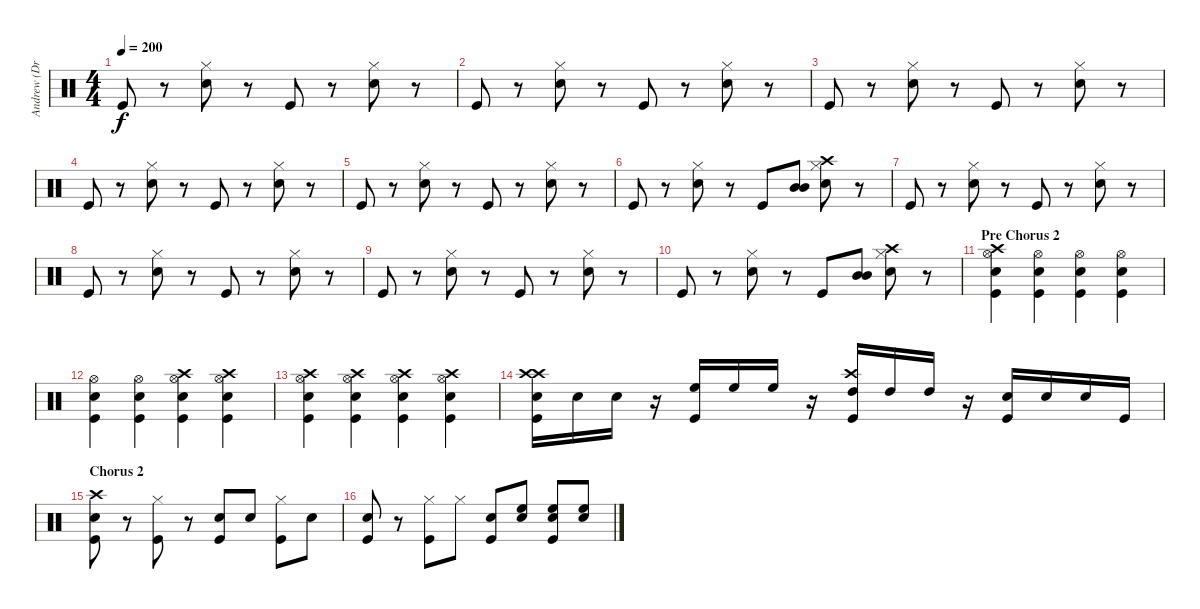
\track ("Andrew (Drums)" "Andrew (Dr") {instrument percussion}
\staff {score}
\articulation defaults
\ts (4 4)
\tempo 200
\clef neutral
\ks c "Kick (hit)".8{dy f}
r.8 ("Snare (hit) 2" "Hi-Hat (closed)").8 r.8 "Kick (hit)".8 r.8 ("Snare (hit) 2" "Hi-Hat (closed)").8 r.8 |
"Kick (hit)".8 r.8 ("Snare (hit) 2" "Hi-Hat (closed)").8 r.8 "Kick (hit)".8 r.8 ("Snare (hit) 2" "Hi-Hat (closed)").8 r.8 |
"Kick (hit)".8 r.8 ("Snare (hit) 2" "Hi-Hat (closed)").8 r.8 "Kick (hit)".8 r.8 ("Snare (hit) 2" "Hi-Hat (closed)").8 r.8 |
"Kick (hit)".8 r.8 ("Snare (hit) 2" "Hi-Hat (closed)").8 r.8 "Kick (hit)".8 r.8 ("Snare (hit) 2" "Hi-Hat (closed)").8 r.8 |
"Kick (hit)".8 r.8 ("Snare (hit) 2" "Hi-Hat (closed)").8 r.8 "Kick (hit)".8 r.8 ("Snare (hit) 2" "Hi-Hat (closed)").8 r.8 |
"Kick (hit)".8 r.8 ("Snare (hit) 2" "Hi-Hat (closed)").8 r.8 "Kick (hit)".8 ("Mid Tom (hit)" "Mid Tom (hit)").8 ("Snare (hit) 2" "Hi-Hat (closed)" "Crash high (hit)").8 r.8 |
"Kick (hit)".8 r.8 ("Snare (hit) 2" "Hi-Hat (closed)").8 r.8 "Kick (hit)".8 r.8 ("Snare (hit) 2" "Hi-Hat (closed)").8 r.8 |
"Kick (hit)".8 r.8 ("Snare (hit) 2" "Hi-Hat (closed)").8 r.8 "Kick (hit)".8 r.8 ("Snare (hit) 2" "Hi-Hat (closed)").8 r.8 |
"Kick (hit)".8 r.8 ("Snare (hit) 2" "Hi-Hat (closed)").8 r.8 "Kick (hit)".8 r.8 ("Snare (hit) 2" "Hi-Hat (closed)").8 r.8 |
"Kick (hit)".8 r.8 ("Snare (hit) 2" "Hi-Hat (closed)").8 r.8 "Kick (hit)".8 ("Mid Tom (hit)" "Mid Tom (hit)").8 ("Snare (hit) 2" "Hi-Hat (closed)" "Crash high (hit)").8 r.8 |
\section ("" "Pre Chorus 2")
("Kick (hit)" "Snare (hit) 2" "Hi-Hat (open)" "Crash high (hit)").4 ("Kick (hit)" "Snare (hit) 2" "Hi-Hat (open)").4 ("Kick (hit)" "Snare (hit) 2" "Hi-Hat (open)").4 ("Kick (hit)" "Snare (hit) 2" "Hi-Hat (open)").4 |
("Kick (hit)" "Snare (hit) 2" "Hi-Hat (open)").4 ("Kick (hit)" "Snare (hit) 2" "Hi-Hat (open)").4 ("Kick (hit)" "Snare (hit) 2" "Hi-Hat (open)" "Crash high (hit)").4 ("Kick (hit)" "Snare (hit) 2" "Hi-Hat (open)" "Crash high (hit)").4 |
("Kick (hit)" "Snare (hit) 2" "Hi-Hat (open)" "Crash high (hit)").4 ("Kick (hit)" "Snare (hit) 2" "Hi-Hat (open)" "Crash high (hit)").4 ("Kick (hit)" "Snare (hit) 2" "Hi-Hat (open)" "Crash high (hit)").4 ("Kick (hit)" "Snare (hit) 2" "Hi-Hat (open)" "Crash high (hit)").4 |
("Kick (hit)" "Snare (hit) 2" "Crash high (hit)" "Crash high (hit)").16 "Snare (hit) 2".16 "Snare (hit) 2".16 r.16 ("Kick (hit)" "High Floor Tom (hit)").16 "High Floor Tom (hit)".16 "High Floor Tom (hit)".16 r.16 ("Kick (hit)" "High Tom (hit)" "Crash high (hit)").16 "High Tom (hit)".16 "High Tom (hit)".16 r.16 ("Kick (hit)" "Snare (hit) 2").16 "Snare (hit) 2".16 "Snare (hit) 2".16 "Kick (hit)".16 |
\section ("" "Chorus 2")
("Kick (hit)" "Snare (hit) 2" "Crash high (hit)").8 r.8 ("Kick (hit)" "Hi-Hat (closed)").8 r.8 ("Kick (hit)" "Snare (hit) 2").8 "Snare (hit) 2".8 ("Kick (hit)" "Hi-Hat (closed)").8 "Snare (hit) 2".8 |
("Kick (hit)" "Snare (hit) 2").8 r.8 ("Kick (hit)" "Hi-Hat (closed)").8 "Hi-Hat (closed)".8 ("Kick (hit)" "Snare (hit) 2").8 ("Snare (hit) 2" "High Floor Tom (hit)").8 ("Kick (hit)" "Snare (hit) 2" "High Floor Tom (hit)").8 ("Snare (hit) 2" "High Floor Tom (hit)").8
